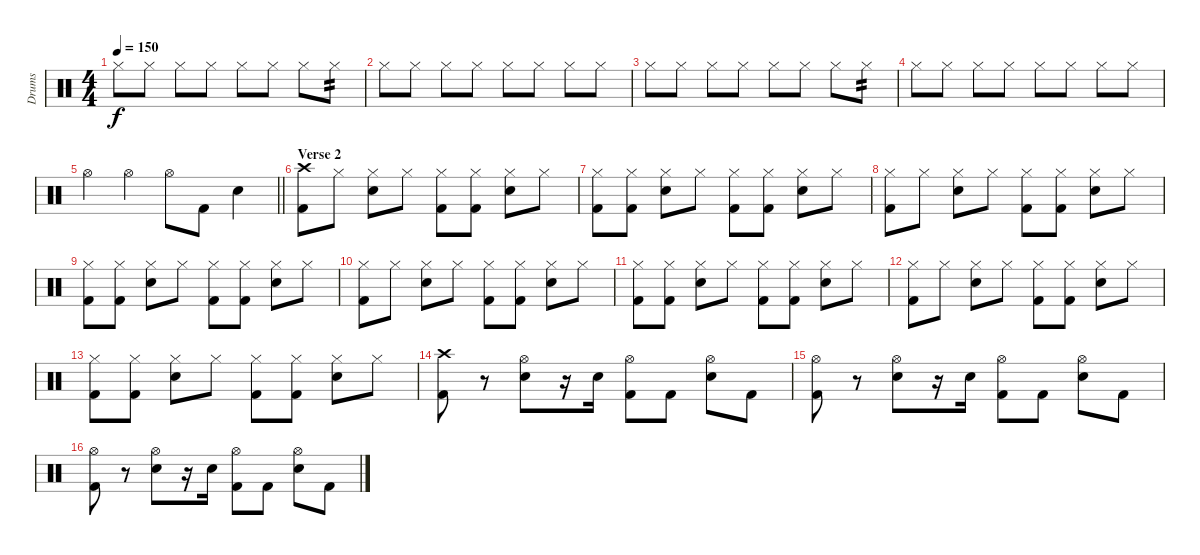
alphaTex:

\track ("Drums" "Drums") {instrument percussion}
\staff {score}
\articulation defaults
\ts (4 4)
\tempo 150
\clef neutral
\ks c "Hi-Hat (closed)".8{dy f} "Hi-Hat (closed)".8 "Hi-Hat (closed)".8 "Hi-Hat (closed)".8 "Hi-Hat (closed)".8 "Hi-Hat (closed)".8 "Hi-Hat (closed)".8 "Hi-Hat (closed)".8{tp 2}
|
"Hi-Hat (closed)".8 "Hi-Hat (closed)".8 "Hi-Hat (closed)".8 "Hi-Hat (closed)".8 "Hi-Hat (closed)".8 "Hi-Hat (closed)".8 "Hi-Hat (closed)".8 "Hi-Hat (closed)".8 |
"Hi-Hat (closed)".8 "Hi-Hat (closed)".8 "Hi-Hat (closed)".8 "Hi-Hat (closed)".8 "Hi-Hat (closed)".8 "Hi-Hat (closed)".8 "Hi-Hat (closed)".8 "Hi-Hat (closed)".8{tp 2} |
"Hi-Hat (closed)".8 "Hi-Hat (closed)".8 "Hi-Hat (closed)".8 "Hi-Hat (closed)".8 "Hi-Hat (closed)".8 "Hi-Hat (closed)".8 "Hi-Hat (closed)".8 "Hi-Hat (closed)".8 |
\barLineRight lightlight "Hi-Hat (open)".4 "Hi-Hat (open)".4 "Hi-Hat (open)".8 "Kick (hit) 2".8 "Electric Snare (hit)".4
|
\section ("" "Verse 2")
("Crash high (hit)" "Kick (hit) 2").8 "Hi-Hat (closed)".8 ("Hi-Hat (closed)" "Electric Snare (hit)").8 "Hi-Hat (closed)".8 ("Hi-Hat (closed)" "Kick (hit) 2").8 ("Hi-Hat (closed)" "Kick (hit) 2").8 ("Hi-Hat (closed)" "Electric Snare (hit)").8 "Hi-Hat (closed)".8 |
("Hi-Hat (closed)" "Kick (hit) 2").8 ("Hi-Hat (closed)" "Kick (hit) 2").8 ("Hi-Hat (closed)" "Electric Snare (hit)").8 "Hi-Hat (closed)".8 ("Hi-Hat (closed)" "Kick (hit) 2").8 ("Hi-Hat (closed)" "Kick (hit) 2").8 ("Hi-Hat (closed)" "Electric Snare (hit)").8 "Hi-Hat (closed)".8 |
("Hi-Hat (closed)" "Kick (hit) 2").8 "Hi-Hat (closed)".8 ("Hi-Hat (closed)" "Electric Snare (hit)").8 "Hi-Hat (closed)".8 ("Hi-Hat (closed)" "Kick (hit) 2").8 ("Hi-Hat (closed)" "Kick (hit) 2").8 ("Hi-Hat (closed)" "Electric Snare (hit)").8 "Hi-Hat (closed)".8 |
("Hi-Hat (closed)" "Kick (hit) 2").8 ("Hi-Hat (closed)" "Kick (hit) 2").8 ("Hi-Hat (closed)" "Electric Snare (hit)").8 "Hi-Hat (closed)".8 ("Hi-Hat (closed)" "Kick (hit) 2").8 ("Hi-Hat (closed)" "Kick (hit) 2").8 ("Hi-Hat (closed)" "Electric Snare (hit)").8 "Hi-Hat (closed)".8 |
("Hi-Hat (closed)" "Kick (hit) 2").8 "Hi-Hat (closed)".8 ("Hi-Hat (closed)" "Electric Snare (hit)").8 "Hi-Hat (closed)".8 ("Hi-Hat (closed)" "Kick (hit) 2").8 ("Hi-Hat (closed)" "Kick (hit) 2").8 ("Hi-Hat (closed)" "Electric Snare (hit)").8 "Hi-Hat (closed)".8 |
("Hi-Hat (closed)" "Kick (hit) 2").8 ("Hi-Hat (closed)" "Kick (hit) 2").8 ("Hi-Hat (closed)" "Electric Snare (hit)").8 "Hi-Hat (closed)".8 ("Hi-Hat (closed)" "Kick (hit) 2").8 ("Hi-Hat (closed)" "Kick (hit) 2").8 ("Hi-Hat (closed)" "Electric Snare (hit)").8 "Hi-Hat (closed)".8 |
("Hi-Hat (closed)" "Kick (hit) 2").8 "Hi-Hat (closed)".8 ("Hi-Hat (closed)" "Electric Snare (hit)").8 "Hi-Hat (closed)".8 ("Hi-Hat (closed)" "Kick (hit) 2").8 ("Hi-Hat (closed)" "Kick (hit) 2").8 ("Hi-Hat (closed)" "Electric Snare (hit)").8 "Hi-Hat (closed)".8 |
("Hi-Hat (closed)" "Kick (hit) 2").8 ("Hi-Hat (closed)" "Kick (hit) 2").8 ("Hi-Hat (closed)" "Electric Snare (hit)").8 "Hi-Hat (closed)".8 ("Hi-Hat (closed)" "Kick (hit) 2").8 ("Hi-Hat (closed)" "Kick (hit) 2").8 ("Hi-Hat (closed)" "Electric Snare (hit)").8 "Hi-Hat (closed)".8 |
("Crash high (hit)" "Kick (hit) 2").8 r.8 ("Hi-Hat (open)" "Electric Snare (hit)").8 r.16 "Electric Snare (hit)".16 ("Hi-Hat (open)" "Kick (hit) 2").8 "Kick (hit) 2".8 ("Hi-Hat (open)" "Electric Snare (hit)").8 "Kick (hit) 2".8 |
("Hi-Hat (open)" "Kick (hit) 2").8 r.8 ("Hi-Hat (open)" "Electric Snare (hit)").8 r.16 "Electric Snare (hit)".16 ("Hi-Hat (open)" "Kick (hit) 2").8 "Kick (hit) 2".8 ("Hi-Hat (open)" "Electric Snare (hit)").8 "Kick (hit) 2".8 |
("Hi-Hat (open)" "Kick (hit) 2").8 r.8 ("Hi-Hat (open)" "Electric Snare (hit)").8 r.16 "Electric Snare (hit)".16 ("Hi-Hat (open)" "Kick (hit) 2").8 "Kick (hit) 2".8 ("Hi-Hat (open)" "Electric Snare (hit)").8 "Kick (hit) 2".8
